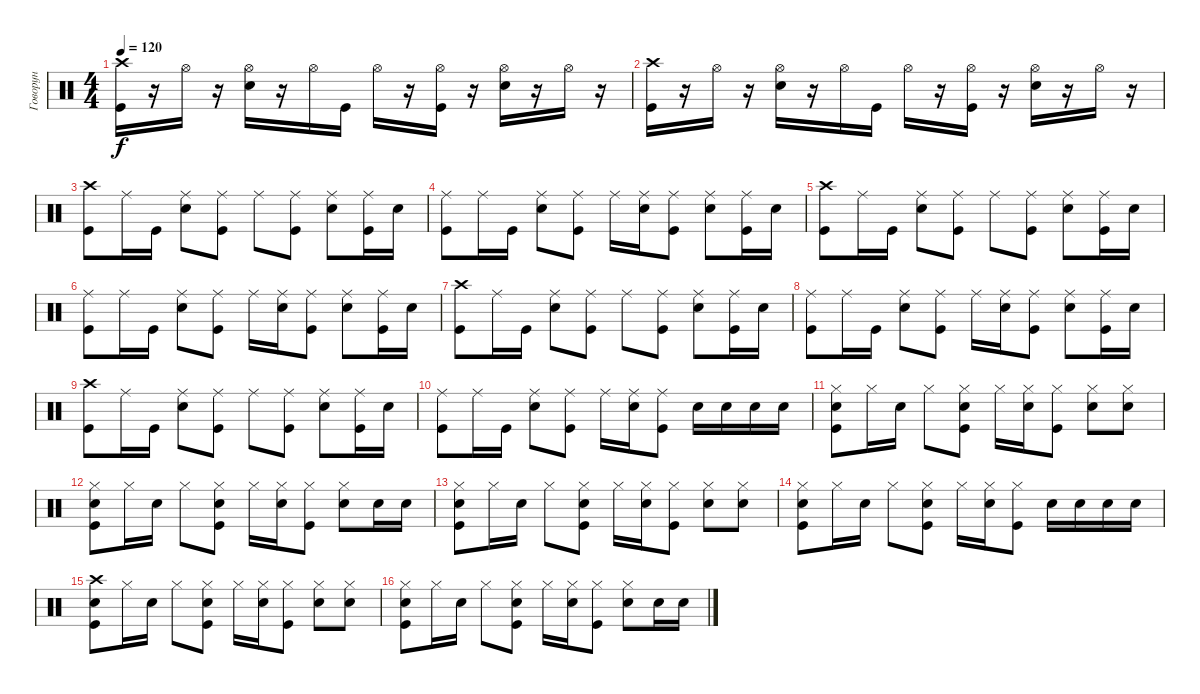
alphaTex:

\track ("Говорун" "Говорун") {instrument percussion}
\staff {score}
\articulation defaults
\ts (4 4)
\tempo 120
\clef neutral
\ks c
("Crash high (hit)" "Kick (hit)").16{dy f} r.16 "Hi-Hat (open)".16 r.16 ("Hi-Hat (open)" "Snare (hit) 2").16 r.16 "Hi-Hat (open)".16 "Kick (hit)".16 "Hi-Hat (open)".16 r.16 ("Hi-Hat (open)" "Kick (hit)").16 r.16 ("Hi-Hat (open)" "Snare (hit) 2").16 r.16 "Hi-Hat (open)".16 r.16 |
("Crash high (hit)" "Kick (hit)").16 r.16 "Hi-Hat (open)".16 r.16 ("Hi-Hat (open)" "Snare (hit) 2").16 r.16 "Hi-Hat (open)".16 "Kick (hit)".16 "Hi-Hat (open)".16 r.16 ("Hi-Hat (open)" "Kick (hit)").16 r.16 ("Hi-Hat (open)" "Snare (hit) 2").16 r.16 "Hi-Hat (open)".16 r.16 |
("Crash high (hit)" "Kick (hit)").8 "Ride (middle)".16 "Kick (hit)".16 ("Ride (middle)" "Snare (hit) 2").8 ("Ride (middle)" "Kick (hit)").8 "Ride (middle)".8 ("Ride (middle)" "Kick (hit)").8 ("Ride (middle)" "Snare (hit) 2").8 ("Ride (middle)" "Kick (hit)").16 "Snare (hit) 2".16 |
("Ride (middle)" "Kick (hit)").8 "Ride (middle)".16 "Kick (hit)".16 ("Ride (middle)" "Snare (hit) 2").8 ("Ride (middle)" "Kick (hit)").8 "Ride (middle)".16 ("Ride (middle)" "Snare (hit) 2").16 ("Ride (middle)" "Kick (hit)").8 ("Ride (middle)" "Snare (hit) 2").8 ("Ride (middle)" "Kick (hit)").16 "Snare (hit) 2".16 |
("Crash high (hit)" "Kick (hit)").8 "Ride (middle)".16 "Kick (hit)".16 ("Ride (middle)" "Snare (hit) 2").8 ("Ride (middle)" "Kick (hit)").8 "Ride (middle)".8 ("Ride (middle)" "Kick (hit)").8 ("Ride (middle)" "Snare (hit) 2").8 ("Ride (middle)" "Kick (hit)").16 "Snare (hit) 2".16 |
("Ride (middle)" "Kick (hit)").8 "Ride (middle)".16 "Kick (hit)".16 ("Ride (middle)" "Snare (hit) 2").8 ("Ride (middle)" "Kick (hit)").8 "Ride (middle)".16 ("Ride (middle)" "Snare (hit) 2").16 ("Ride (middle)" "Kick (hit)").8 ("Ride (middle)" "Snare (hit) 2").8 ("Ride (middle)" "Kick (hit)").16 "Snare (hit) 2".16 |
("Crash high (hit)" "Kick (hit)").8 "Ride (middle)".16 "Kick (hit)".16 ("Ride (middle)" "Snare (hit) 2").8 ("Ride (middle)" "Kick (hit)").8 "Ride (middle)".8 ("Ride (middle)" "Kick (hit)").8 ("Ride (middle)" "Snare (hit) 2").8 ("Ride (middle)" "Kick (hit)").16 "Snare (hit) 2".16 |
("Ride (middle)" "Kick (hit)").8 "Ride (middle)".16 "Kick (hit)".16 ("Ride (middle)" "Snare (hit) 2").8 ("Ride (middle)" "Kick (hit)").8 "Ride (middle)".16 ("Ride (middle)" "Snare (hit) 2").16 ("Ride (middle)" "Kick (hit)").8 ("Ride (middle)" "Snare (hit) 2").8 ("Ride (middle)" "Kick (hit)").16 "Snare (hit) 2".16 |
("Crash high (hit)" "Kick (hit)").8 "Ride (middle)".16 "Kick (hit)".16 ("Ride (middle)" "Snare (hit) 2").8 ("Ride (middle)" "Kick (hit)").8 "Ride (middle)".8 ("Ride (middle)" "Kick (hit)").8 ("Ride (middle)" "Snare (hit) 2").8 ("Ride (middle)" "Kick (hit)").16 "Snare (hit) 2".16 |
("Ride (middle)" "Kick (hit)").8 "Ride (middle)".16 "Kick (hit)".16 ("Ride (middle)" "Snare (hit) 2").8 ("Ride (middle)" "Kick (hit)").8 "Ride (middle)".16 ("Ride (middle)" "Snare (hit) 2").16 ("Ride (middle)" "Kick (hit)").8 "Snare (hit) 2".16 "Snare (hit) 2".16 "Snare (hit) 2".16 "Snare (hit) 2".16 |
("Hi-Hat (closed)" "Snare (hit) 2" "Kick (hit)").8 "Hi-Hat (closed)".16 "Snare (hit) 2".16 "Hi-Hat (closed)".8 ("Hi-Hat (closed)" "Snare (hit) 2" "Kick (hit)").8 "Hi-Hat (closed)".16 ("Hi-Hat (closed)" "Snare (hit) 2").16 ("Hi-Hat (closed)" "Kick (hit)").8 ("Hi-Hat (closed)" "Snare (hit) 2").8 ("Hi-Hat (closed)" "Snare (hit) 2").8 |
("Hi-Hat (closed)" "Snare (hit) 2" "Kick (hit)").8 "Hi-Hat (closed)".16 "Snare (hit) 2".16 "Hi-Hat (closed)".8 ("Hi-Hat (closed)" "Snare (hit) 2" "Kick (hit)").8 "Hi-Hat (closed)".16 ("Hi-Hat (closed)" "Snare (hit) 2").16 ("Hi-Hat (closed)" "Kick (hit)").8 ("Hi-Hat (closed)" "Snare (hit) 2").8 "Snare (hit) 2".16 "Snare (hit) 2".16 |
("Hi-Hat (closed)" "Snare (hit) 2" "Kick (hit)").8 "Hi-Hat (closed)".16 "Snare (hit) 2".16 "Hi-Hat (closed)".8 ("Hi-Hat (closed)" "Snare (hit) 2" "Kick (hit)").8 "Hi-Hat (closed)".16 ("Hi-Hat (closed)" "Snare (hit) 2").16 ("Hi-Hat (closed)" "Kick (hit)").8 ("Hi-Hat (closed)" "Snare (hit) 2").8 ("Hi-Hat (closed)" "Snare (hit) 2").8 |
("Hi-Hat (closed)" "Snare (hit) 2" "Kick (hit)").8 "Hi-Hat (closed)".16 "Snare (hit) 2".16 "Hi-Hat (closed)".8 ("Hi-Hat (closed)" "Snare (hit) 2" "Kick (hit)").8 "Hi-Hat (closed)".16 ("Hi-Hat (closed)" "Snare (hit) 2").16 ("Hi-Hat (closed)" "Kick (hit)").8 "Snare (hit) 2".16 "Snare (hit) 2".16 "Snare (hit) 2".16 "Snare (hit) 2".16 |
("Crash high (hit)" "Snare (hit) 2" "Kick (hit)").8 "Hi-Hat (closed)".16 "Snare (hit) 2".16 "Hi-Hat (closed)".8 ("Hi-Hat (closed)" "Snare (hit) 2" "Kick (hit)").8 "Hi-Hat (closed)".16 ("Hi-Hat (closed)" "Snare (hit) 2").16 ("Hi-Hat (closed)" "Kick (hit)").8 ("Hi-Hat (closed)" "Snare (hit) 2").8 ("Hi-Hat (closed)" "Snare (hit) 2").8 |
("Hi-Hat (closed)" "Snare (hit) 2" "Kick (hit)").8 "Hi-Hat (closed)".16 "Snare (hit) 2".16 "Hi-Hat (closed)".8 ("Hi-Hat (closed)" "Snare (hit) 2" "Kick (hit)").8 "Hi-Hat (closed)".16 ("Hi-Hat (closed)" "Snare (hit) 2").16 ("Hi-Hat (closed)" "Kick (hit)").8 ("Hi-Hat (closed)" "Snare (hit) 2").8 "Snare (hit) 2".16 "Snare (hit) 2".16
